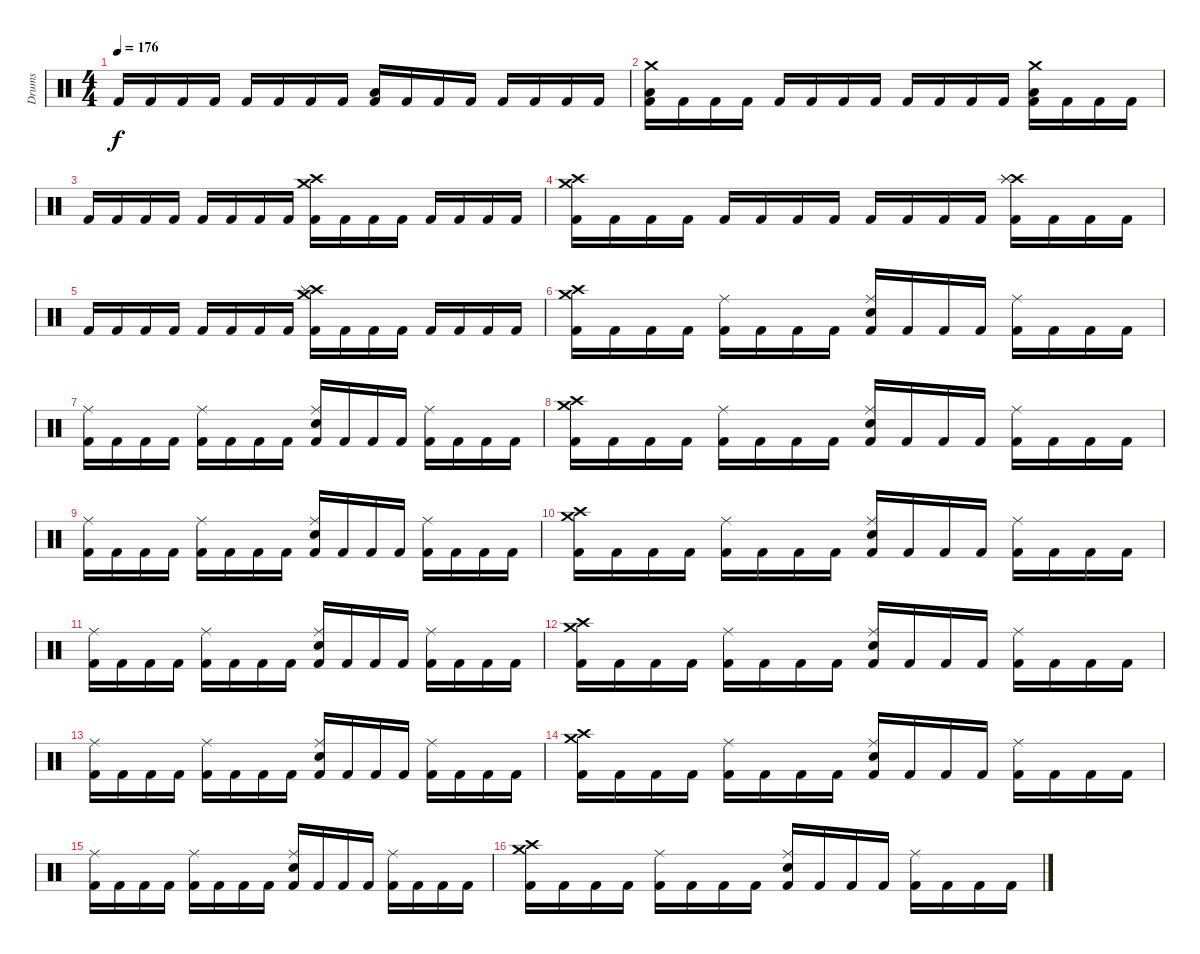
\track ("Drums" "Drums") {instrument percussion}
\staff {score}
\articulation defaults
\ts (4 4)
\tempo 176
\clef neutral
\ks c "Kick (hit) 2".16{dy f} "Kick (hit) 2".16 "Kick (hit) 2".16 "Kick (hit) 2".16 "Kick (hit) 2".16 "Kick (hit) 2".16 "Kick (hit) 2".16 "Kick (hit) 2".16
("Low Tom (hit)" "Kick (hit) 2").16 "Kick (hit) 2".16 "Kick (hit) 2".16 "Kick (hit) 2".16 "Kick (hit) 2".16 "Kick (hit) 2".16 "Kick (hit) 2".16 "Kick (hit) 2".16 |
("Crash medium (hit)" "Low Tom (hit)" "Kick (hit) 2").16 "Kick (hit) 2".16 "Kick (hit) 2".16 "Kick (hit) 2".16 "Kick (hit) 2".16 "Kick (hit) 2".16 "Kick (hit) 2".16 "Kick (hit) 2".16 "Kick (hit) 2".16 "Kick (hit) 2".16 "Kick (hit) 2".16 "Kick (hit) 2".16 ("Crash medium (hit)" "Low Tom (hit)" "Kick (hit) 2").16 "Kick (hit) 2".16 "Kick (hit) 2".16 "Kick (hit) 2".16 |
"Kick (hit) 2".16 "Kick (hit) 2".16 "Kick (hit) 2".16 "Kick (hit) 2".16 "Kick (hit) 2".16 "Kick (hit) 2".16 "Kick (hit) 2".16 "Kick (hit) 2".16 ("Crash high (hit)" "Crash medium (hit)" "Kick (hit) 2").16 "Kick (hit) 2".16 "Kick (hit) 2".16 "Kick (hit) 2".16 "Kick (hit) 2".16 "Kick (hit) 2".16 "Kick (hit) 2".16 "Kick (hit) 2".16 |
("Crash high (hit)" "Crash medium (hit)" "Kick (hit) 2").16 "Kick (hit) 2".16 "Kick (hit) 2".16 "Kick (hit) 2".16 "Kick (hit) 2".16 "Kick (hit) 2".16 "Kick (hit) 2".16 "Kick (hit) 2".16 "Kick (hit) 2".16 "Kick (hit) 2".16 "Kick (hit) 2".16 "Kick (hit) 2".16 ("Crash high (hit)" "Splash (hit)" "Splash (hit)" "Kick (hit) 2").16 "Kick (hit) 2".16 "Kick (hit) 2".16 "Kick (hit) 2".16 |
"Kick (hit) 2".16 "Kick (hit) 2".16 "Kick (hit) 2".16 "Kick (hit) 2".16 "Kick (hit) 2".16 "Kick (hit) 2".16 "Kick (hit) 2".16 "Kick (hit) 2".16 ("Crash high (hit)" "Crash medium (hit)" "Splash (hit)" "Kick (hit) 2").16 "Kick (hit) 2".16 "Kick (hit) 2".16 "Kick (hit) 2".16 "Kick (hit) 2".16 "Kick (hit) 2".16 "Kick (hit) 2".16 "Kick (hit) 2".16 |
("Crash medium (hit)" "Crash high (hit)" "Kick (hit) 2").16 "Kick (hit) 2".16 "Kick (hit) 2".16 "Kick (hit) 2".16 ("Ride (middle)" "Kick (hit) 2").16 "Kick (hit) 2".16 "Kick (hit) 2".16 "Kick (hit) 2".16 ("Ride (middle)" "Snare (hit) 2" "Kick (hit) 2").16 "Kick (hit) 2".16 "Kick (hit) 2".16 "Kick (hit) 2".16 ("Ride (middle)" "Kick (hit) 2").16 "Kick (hit) 2".16 "Kick (hit) 2".16 "Kick (hit) 2".16 |
("Ride (middle)" "Kick (hit) 2").16 "Kick (hit) 2".16 "Kick (hit) 2".16 "Kick (hit) 2".16 ("Ride (middle)" "Kick (hit) 2").16 "Kick (hit) 2".16 "Kick (hit) 2".16 "Kick (hit) 2".16 ("Ride (middle)" "Snare (hit) 2" "Kick (hit) 2").16 "Kick (hit) 2".16 "Kick (hit) 2".16 "Kick (hit) 2".16 ("Ride (middle)" "Kick (hit) 2").16 "Kick (hit) 2".16 "Kick (hit) 2".16 "Kick (hit) 2".16 |
("Crash medium (hit)" "Crash high (hit)" "Kick (hit) 2").16 "Kick (hit) 2".16 "Kick (hit) 2".16 "Kick (hit) 2".16 ("Ride (middle)" "Kick (hit) 2").16 "Kick (hit) 2".16 "Kick (hit) 2".16 "Kick (hit) 2".16 ("Ride (middle)" "Snare (hit) 2" "Kick (hit) 2").16 "Kick (hit) 2".16 "Kick (hit) 2".16 "Kick (hit) 2".16 ("Ride (middle)" "Kick (hit) 2").16 "Kick (hit) 2".16 "Kick (hit) 2".16 "Kick (hit) 2".16 |
("Ride (middle)" "Kick (hit) 2").16 "Kick (hit) 2".16 "Kick (hit) 2".16 "Kick (hit) 2".16 ("Ride (middle)" "Kick (hit) 2").16 "Kick (hit) 2".16 "Kick (hit) 2".16 "Kick (hit) 2".16 ("Ride (middle)" "Snare (hit) 2" "Kick (hit) 2").16 "Kick (hit) 2".16 "Kick (hit) 2".16 "Kick (hit) 2".16 ("Ride (middle)" "Kick (hit) 2").16 "Kick (hit) 2".16 "Kick (hit) 2".16 "Kick (hit) 2".16 |
("Crash medium (hit)" "Crash high (hit)" "Kick (hit) 2").16 "Kick (hit) 2".16 "Kick (hit) 2".16 "Kick (hit) 2".16 ("Ride (middle)" "Kick (hit) 2").16 "Kick (hit) 2".16 "Kick (hit) 2".16 "Kick (hit) 2".16 ("Ride (middle)" "Snare (hit) 2" "Kick (hit) 2").16 "Kick (hit) 2".16 "Kick (hit) 2".16 "Kick (hit) 2".16 ("Ride (middle)" "Kick (hit) 2").16 "Kick (hit) 2".16 "Kick (hit) 2".16 "Kick (hit) 2".16 |
("Ride (middle)" "Kick (hit) 2").16 "Kick (hit) 2".16 "Kick (hit) 2".16 "Kick (hit) 2".16 ("Ride (middle)" "Kick (hit) 2").16 "Kick (hit) 2".16 "Kick (hit) 2".16 "Kick (hit) 2".16 ("Ride (middle)" "Snare (hit) 2" "Kick (hit) 2").16 "Kick (hit) 2".16 "Kick (hit) 2".16 "Kick (hit) 2".16 ("Ride (middle)" "Kick (hit) 2").16 "Kick (hit) 2".16 "Kick (hit) 2".16 "Kick (hit) 2".16 |
("Crash medium (hit)" "Crash high (hit)" "Kick (hit) 2").16 "Kick (hit) 2".16 "Kick (hit) 2".16 "Kick (hit) 2".16 ("Ride (middle)" "Kick (hit) 2").16 "Kick (hit) 2".16 "Kick (hit) 2".16 "Kick (hit) 2".16 ("Ride (middle)" "Snare (hit) 2" "Kick (hit) 2").16 "Kick (hit) 2".16 "Kick (hit) 2".16 "Kick (hit) 2".16 ("Ride (middle)" "Kick (hit) 2").16 "Kick (hit) 2".16 "Kick (hit) 2".16 "Kick (hit) 2".16 |
("Ride (middle)" "Kick (hit) 2").16 "Kick (hit) 2".16 "Kick (hit) 2".16 "Kick (hit) 2".16 ("Ride (middle)" "Kick (hit) 2").16 "Kick (hit) 2".16 "Kick (hit) 2".16 "Kick (hit) 2".16 ("Ride (middle)" "Snare (hit) 2" "Kick (hit) 2").16 "Kick (hit) 2".16 "Kick (hit) 2".16 "Kick (hit) 2".16 ("Ride (middle)" "Kick (hit) 2").16 "Kick (hit) 2".16 "Kick (hit) 2".16 "Kick (hit) 2".16 |
("Crash medium (hit)" "Crash high (hit)" "Kick (hit) 2").16 "Kick (hit) 2".16 "Kick (hit) 2".16 "Kick (hit) 2".16 ("Ride (middle)" "Kick (hit) 2").16 "Kick (hit) 2".16 "Kick (hit) 2".16 "Kick (hit) 2".16 ("Ride (middle)" "Snare (hit) 2" "Kick (hit) 2").16 "Kick (hit) 2".16 "Kick (hit) 2".16 "Kick (hit) 2".16 ("Ride (middle)" "Kick (hit) 2").16 "Kick (hit) 2".16 "Kick (hit) 2".16 "Kick (hit) 2".16 |
("Ride (middle)" "Kick (hit) 2").16 "Kick (hit) 2".16 "Kick (hit) 2".16 "Kick (hit) 2".16 ("Ride (middle)" "Kick (hit) 2").16 "Kick (hit) 2".16 "Kick (hit) 2".16 "Kick (hit) 2".16 ("Ride (middle)" "Snare (hit) 2" "Kick (hit) 2").16 "Kick (hit) 2".16 "Kick (hit) 2".16 "Kick (hit) 2".16 ("Ride (middle)" "Kick (hit) 2").16 "Kick (hit) 2".16 "Kick (hit) 2".16 "Kick (hit) 2".16 |
("Crash medium (hit)" "Crash high (hit)" "Kick (hit) 2").16 "Kick (hit) 2".16 "Kick (hit) 2".16 "Kick (hit) 2".16 ("Ride (middle)" "Kick (hit) 2").16 "Kick (hit) 2".16 "Kick (hit) 2".16 "Kick (hit) 2".16 ("Ride (middle)" "Snare (hit) 2" "Kick (hit) 2").16 "Kick (hit) 2".16 "Kick (hit) 2".16 "Kick (hit) 2".16 ("Ride (middle)" "Kick (hit) 2").16 "Kick (hit) 2".16 "Kick (hit) 2".16 "Kick (hit) 2".16
